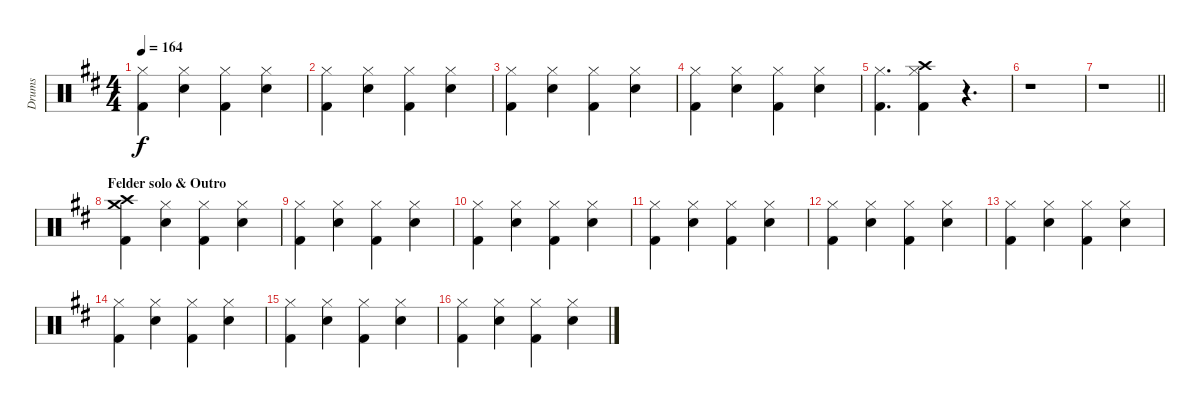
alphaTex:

\track ("Drums" "Drums") {instrument percussion}
\staff {score}
\articulation defaults
\ts (4 4)
\tempo 164
\clef neutral
\ks d
("Hi-Hat (closed)" "Kick (hit) 2").4{dy f} ("Hi-Hat (closed)" "Snare (hit) 2").4 ("Hi-Hat (closed)" "Kick (hit) 2").4 ("Hi-Hat (closed)" "Snare (hit) 2").4 |
("Hi-Hat (closed)" "Kick (hit) 2").4 ("Hi-Hat (closed)" "Snare (hit) 2").4 ("Hi-Hat (closed)" "Kick (hit) 2").4 ("Hi-Hat (closed)" "Snare (hit) 2").4 |
("Hi-Hat (closed)" "Kick (hit) 2").4 ("Hi-Hat (closed)" "Snare (hit) 2").4 ("Hi-Hat (closed)" "Kick (hit) 2").4 ("Hi-Hat (closed)" "Snare (hit) 2").4 |
("Hi-Hat (closed)" "Kick (hit) 2").4 ("Hi-Hat (closed)" "Snare (hit) 2").4 ("Hi-Hat (closed)" "Kick (hit) 2").4 ("Hi-Hat (closed)" "Snare (hit) 2").4 |
("Hi-Hat (closed)" "Kick (hit) 2").4{d} ("Crash high (hit)" "Hi-Hat (closed)" "Kick (hit) 2").4 r.4{d} |
r.1 |
\barLineRight lightlight
r.1 |
\section ("" "Felder solo & Outro")
("Crash high (hit)" "Crash medium (hit)" "Kick (hit) 2").4 ("Hi-Hat (closed)" "Snare (hit) 2").4 ("Hi-Hat (closed)" "Kick (hit) 2").4 ("Hi-Hat (closed)" "Snare (hit) 2").4 |
("Hi-Hat (closed)" "Kick (hit) 2").4 ("Hi-Hat (closed)" "Snare (hit) 2").4 ("Hi-Hat (closed)" "Kick (hit) 2").4 ("Hi-Hat (closed)" "Snare (hit) 2").4 |
("Hi-Hat (closed)" "Kick (hit) 2").4 ("Hi-Hat (closed)" "Snare (hit) 2").4 ("Hi-Hat (closed)" "Kick (hit) 2").4 ("Hi-Hat (closed)" "Snare (hit) 2").4 |
("Hi-Hat (closed)" "Kick (hit) 2").4 ("Hi-Hat (closed)" "Snare (hit) 2").4 ("Hi-Hat (closed)" "Kick (hit) 2").4 ("Hi-Hat (closed)" "Snare (hit) 2").4 |
("Hi-Hat (closed)" "Kick (hit) 2").4 ("Hi-Hat (closed)" "Snare (hit) 2").4 ("Hi-Hat (closed)" "Kick (hit) 2").4 ("Hi-Hat (closed)" "Snare (hit) 2").4 |
("Hi-Hat (closed)" "Kick (hit) 2").4 ("Hi-Hat (closed)" "Snare (hit) 2").4 ("Hi-Hat (closed)" "Kick (hit) 2").4 ("Hi-Hat (closed)" "Snare (hit) 2").4 |
("Hi-Hat (closed)" "Kick (hit) 2").4 ("Hi-Hat (closed)" "Snare (hit) 2").4 ("Hi-Hat (closed)" "Kick (hit) 2").4 ("Hi-Hat (closed)" "Snare (hit) 2").4 |
("Hi-Hat (closed)" "Kick (hit) 2").4 ("Hi-Hat (closed)" "Snare (hit) 2").4 ("Hi-Hat (closed)" "Kick (hit) 2").4 ("Hi-Hat (closed)" "Snare (hit) 2").4 |
("Hi-Hat (closed)" "Kick (hit) 2").4 ("Hi-Hat (closed)" "Snare (hit) 2").4 ("Hi-Hat (closed)" "Kick (hit) 2").4 ("Hi-Hat (closed)" "Snare (hit) 2").4
